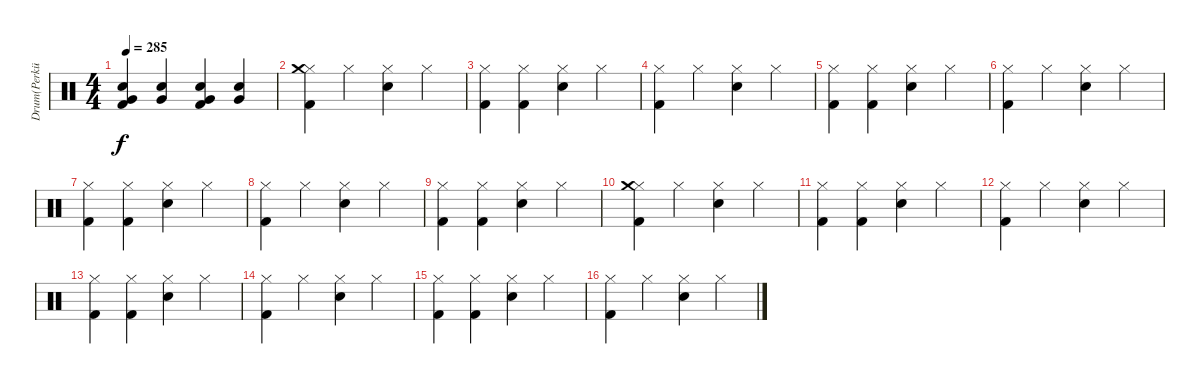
\track ("Drum(Perküsyon)" "Drum(Perkü") {instrument percussion}
\staff {score}
\articulation defaults
\ts (4 4)
\tempo 285
\clef neutral
\ks c
("Kick (hit) 2" "Electric Snare (hit)" "Very Low Tom (hit)").4{dy f} ("Electric Snare (hit)" "Very Low Tom (hit)").4 ("Kick (hit) 2" "Electric Snare (hit)" "Very Low Tom (hit)").4 ("Electric Snare (hit)" "Very Low Tom (hit)").4 |
("Hi-Hat (closed)" "Kick (hit) 2" "Crash medium (hit)").4 "Hi-Hat (closed)".4 ("Hi-Hat (closed)" "Electric Snare (hit)").4 "Hi-Hat (closed)".4 |
("Hi-Hat (closed)" "Kick (hit) 2").4 ("Hi-Hat (closed)" "Kick (hit) 2").4 ("Hi-Hat (closed)" "Electric Snare (hit)").4 "Hi-Hat (closed)".4 |
("Hi-Hat (closed)" "Kick (hit) 2").4 "Hi-Hat (closed)".4 ("Hi-Hat (closed)" "Electric Snare (hit)").4 "Hi-Hat (closed)".4 |
("Hi-Hat (closed)" "Kick (hit) 2").4 ("Hi-Hat (closed)" "Kick (hit) 2").4 ("Hi-Hat (closed)" "Electric Snare (hit)").4 "Hi-Hat (closed)".4 |
("Hi-Hat (closed)" "Kick (hit) 2").4 "Hi-Hat (closed)".4 ("Hi-Hat (closed)" "Electric Snare (hit)").4 "Hi-Hat (closed)".4 |
("Hi-Hat (closed)" "Kick (hit) 2").4 ("Hi-Hat (closed)" "Kick (hit) 2").4 ("Hi-Hat (closed)" "Electric Snare (hit)").4 "Hi-Hat (closed)".4 |
("Hi-Hat (closed)" "Kick (hit) 2").4 "Hi-Hat (closed)".4 ("Hi-Hat (closed)" "Electric Snare (hit)").4 "Hi-Hat (closed)".4 |
("Hi-Hat (closed)" "Kick (hit) 2").4 ("Hi-Hat (closed)" "Kick (hit) 2").4 ("Hi-Hat (closed)" "Electric Snare (hit)").4 "Hi-Hat (closed)".4 |
("Hi-Hat (closed)" "Kick (hit) 2" "Crash medium (hit)").4 "Hi-Hat (closed)".4 ("Hi-Hat (closed)" "Electric Snare (hit)").4 "Hi-Hat (closed)".4 |
("Hi-Hat (closed)" "Kick (hit) 2").4 ("Hi-Hat (closed)" "Kick (hit) 2").4 ("Hi-Hat (closed)" "Electric Snare (hit)").4 "Hi-Hat (closed)".4 |
("Hi-Hat (closed)" "Kick (hit) 2").4 "Hi-Hat (closed)".4 ("Hi-Hat (closed)" "Electric Snare (hit)").4 "Hi-Hat (closed)".4 |
("Hi-Hat (closed)" "Kick (hit) 2").4 ("Hi-Hat (closed)" "Kick (hit) 2").4 ("Hi-Hat (closed)" "Electric Snare (hit)").4 "Hi-Hat (closed)".4 |
("Hi-Hat (closed)" "Kick (hit) 2").4 "Hi-Hat (closed)".4 ("Hi-Hat (closed)" "Electric Snare (hit)").4 "Hi-Hat (closed)".4 |
("Hi-Hat (closed)" "Kick (hit) 2").4 ("Hi-Hat (closed)" "Kick (hit) 2").4 ("Hi-Hat (closed)" "Electric Snare (hit)").4 "Hi-Hat (closed)".4 |
("Hi-Hat (closed)" "Kick (hit) 2").4 "Hi-Hat (closed)".4 ("Hi-Hat (closed)" "Electric Snare (hit)").4 "Hi-Hat (closed)".4
